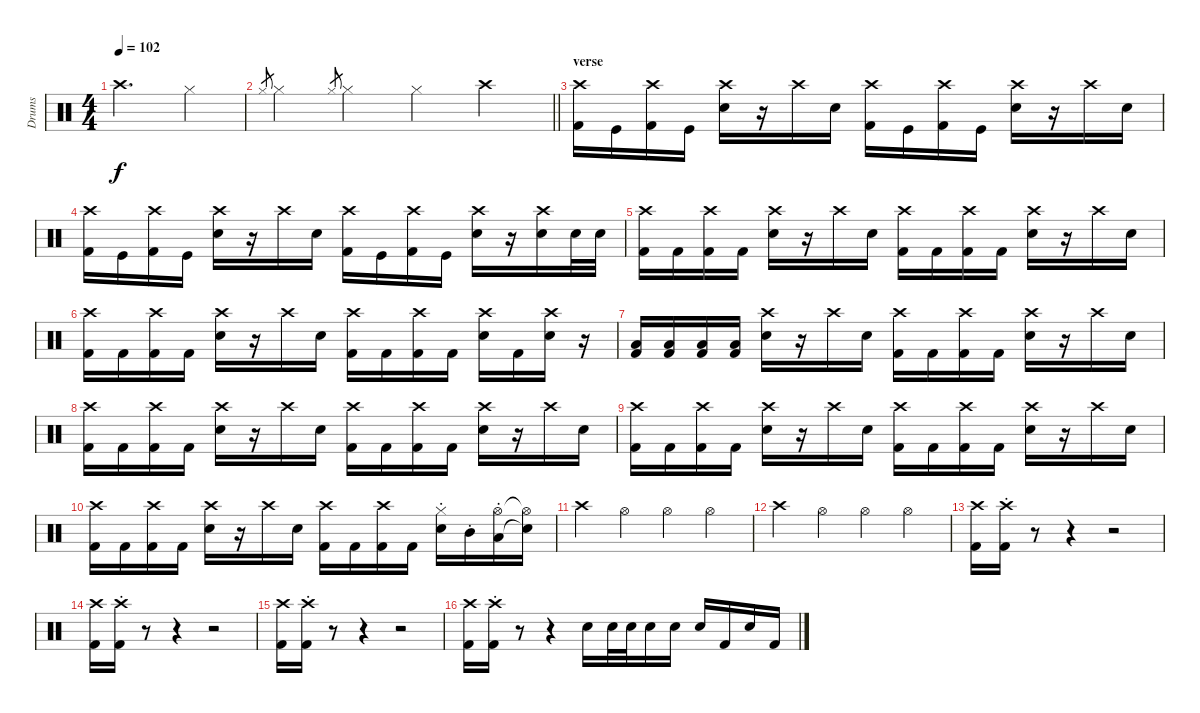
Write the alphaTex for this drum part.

\track ("Drums" "Drums") {instrument percussion}
\staff {score}
\articulation defaults
\ts (4 4)
\tempo 102
\clef neutral
\ks c "Crash high (hit)".2{d dy f} "Hi-Hat (closed)".4
|
\barLineRight lightlight "Hi-Hat (closed)".8{gr} "Hi-Hat (closed)".4 "Hi-Hat (closed)".8{gr} "Hi-Hat (closed)".4 "Hi-Hat (closed)".4 "Crash high (hit)".4
|
\section ("" "verse")
("Kick (hit) 2" "Crash high (hit)").16 "Kick (hit)".16 ("Kick (hit) 2" "Crash high (hit)").16 "Kick (hit)".16 ("Electric Snare (hit)" "Crash high (hit)").16 r.16 "Crash high (hit)".16 "Electric Snare (hit)".16 ("Kick (hit) 2" "Crash high (hit)").16 "Kick (hit)".16 ("Kick (hit) 2" "Crash high (hit)").16 "Kick (hit)".16 ("Electric Snare (hit)" "Crash high (hit)").16 r.16 "Crash high (hit)".16 "Electric Snare (hit)".16 |
("Kick (hit) 2" "Crash high (hit)").16 "Kick (hit)".16 ("Kick (hit) 2" "Crash high (hit)").16 "Kick (hit)".16 ("Electric Snare (hit)" "Crash high (hit)").16 r.16 "Crash high (hit)".16 "Electric Snare (hit)".16 ("Kick (hit) 2" "Crash high (hit)").16 "Kick (hit)".16 ("Kick (hit) 2" "Crash high (hit)").16 "Kick (hit)".16 ("Electric Snare (hit)" "Crash high (hit)").16 r.16 ("Electric Snare (hit)" "Crash high (hit)").16 "Electric Snare (hit)".32 "Electric Snare (hit)".32 |
("Kick (hit) 2" "Crash high (hit)").16 "Kick (hit) 2".16 ("Kick (hit) 2" "Crash high (hit)").16 "Kick (hit) 2".16 ("Electric Snare (hit)" "Crash high (hit)").16 r.16 "Crash high (hit)".16 "Electric Snare (hit)".16 ("Kick (hit) 2" "Crash high (hit)").16 "Kick (hit) 2".16 ("Kick (hit) 2" "Crash high (hit)").16 "Kick (hit) 2".16 ("Electric Snare (hit)" "Crash high (hit)").16 r.16 "Crash high (hit)".16 "Electric Snare (hit)".16 |
("Kick (hit) 2" "Crash high (hit)").16 "Kick (hit) 2".16 ("Kick (hit) 2" "Crash high (hit)").16 "Kick (hit) 2".16 ("Electric Snare (hit)" "Crash high (hit)").16 r.16 "Crash high (hit)".16 "Electric Snare (hit)".16 ("Kick (hit) 2" "Crash high (hit)").16 "Kick (hit) 2".16 ("Kick (hit) 2" "Crash high (hit)").16 "Kick (hit) 2".16 ("Electric Snare (hit)" "Crash high (hit)").16 "Kick (hit) 2".16 ("Electric Snare (hit)" "Crash high (hit)").16 r.16 |
("Kick (hit) 2" "Low Floor Tom (hit)").16 ("Kick (hit) 2" "Low Floor Tom (hit)").16 ("Kick (hit) 2" "Low Floor Tom (hit)").16 ("Kick (hit) 2" "Low Floor Tom (hit)").16 ("Electric Snare (hit)" "Crash high (hit)").16 r.16 "Crash high (hit)".16 "Electric Snare (hit)".16 ("Kick (hit) 2" "Crash high (hit)").16 "Kick (hit) 2".16 ("Kick (hit) 2" "Crash high (hit)").16 "Kick (hit) 2".16 ("Electric Snare (hit)" "Crash high (hit)").16 r.16 "Crash high (hit)".16 "Electric Snare (hit)".16 |
("Kick (hit) 2" "Crash high (hit)").16 "Kick (hit) 2".16 ("Kick (hit) 2" "Crash high (hit)").16 "Kick (hit) 2".16 ("Electric Snare (hit)" "Crash high (hit)").16 r.16 "Crash high (hit)".16 "Electric Snare (hit)".16 ("Kick (hit) 2" "Crash high (hit)").16 "Kick (hit) 2".16 ("Kick (hit) 2" "Crash high (hit)").16 "Kick (hit) 2".16 ("Electric Snare (hit)" "Crash high (hit)").16 r.16 "Crash high (hit)".16 "Electric Snare (hit)".16 |
("Kick (hit) 2" "Crash high (hit)").16 "Kick (hit) 2".16 ("Kick (hit) 2" "Crash high (hit)").16 "Kick (hit) 2".16 ("Electric Snare (hit)" "Crash high (hit)").16 r.16 "Crash high (hit)".16 "Electric Snare (hit)".16 ("Kick (hit) 2" "Crash high (hit)").16 "Kick (hit) 2".16 ("Kick (hit) 2" "Crash high (hit)").16 "Kick (hit) 2".16 ("Electric Snare (hit)" "Crash high (hit)").16 r.16 "Crash high (hit)".16 "Electric Snare (hit)".16 |
("Kick (hit) 2" "Crash high (hit)").16 "Kick (hit) 2".16 ("Kick (hit) 2" "Crash high (hit)").16 "Kick (hit) 2".16 ("Electric Snare (hit)" "Crash high (hit)").16 r.16 "Crash high (hit)".16 "Electric Snare (hit)".16 ("Kick (hit) 2" "Crash high (hit)").16 "Kick (hit) 2".16 ("Kick (hit) 2" "Crash high (hit)").16 "Kick (hit) 2".16 ("Electric Snare (hit)"{st} "Hi-Hat (closed)"{st}).16 "Mid Tom (hit)"{st}.16 ("Low Floor Tom (hit)"{st} "Hi-Hat (open)"{st}).16 ("Electric Snare (hit)"{t} "Hi-Hat (open)"{t}).16 |
"Crash high (hit)".4 "Hi-Hat (open)".4 "Hi-Hat (open)".4 "Hi-Hat (open)".4 |
"Crash high (hit)".4 "Hi-Hat (open)".4 "Hi-Hat (open)".4 "Hi-Hat (open)".4 |
("Kick (hit) 2" "Crash high (hit)").16 ("Kick (hit) 2" "Crash high (hit)"{st}).16 r.8 r.4 r.2 |
("Kick (hit) 2" "Crash high (hit)").16 ("Kick (hit) 2" "Crash high (hit)"{st}).16 r.8 r.4 r.2 |
("Kick (hit) 2" "Crash high (hit)").16 ("Kick (hit) 2" "Crash high (hit)"{st}).16 r.8 r.4 r.2 |
("Kick (hit) 2" "Crash high (hit)").16 ("Kick (hit) 2" "Crash high (hit)"{st}).16 r.8 r.4 "Electric Snare (hit)".16 "Electric Snare (hit)".32 "Electric Snare (hit)".32 "Electric Snare (hit)".16 "Electric Snare (hit)".16 "Electric Snare (hit)".16 "Kick (hit) 2".16 "Electric Snare (hit)".16 "Kick (hit) 2".16
